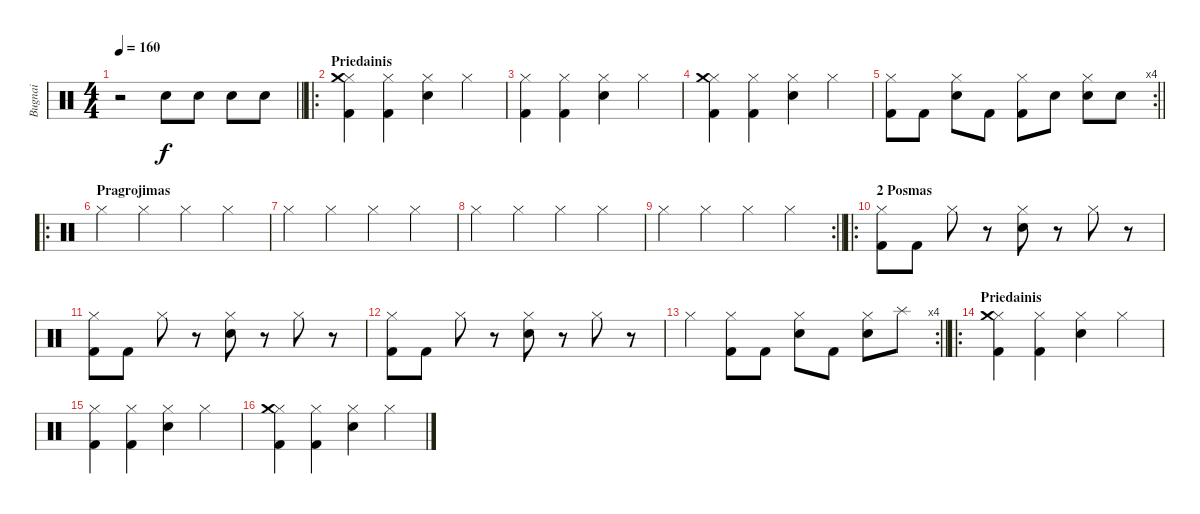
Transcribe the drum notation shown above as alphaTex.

\track ("Bugnai" "Bugnai") {instrument percussion}
\staff {score}
\articulation defaults
\ts (4 4)
\tempo 160
\clef neutral
\barLineRight lightlight
\ks c
r.2{dy f} "Snare (hit) 2".8 "Snare (hit) 2".8 "Snare (hit) 2".8 "Snare (hit) 2".8 |
\ro
\section ("" "Priedainis")
("Hi-Hat (closed)" "Crash medium (hit)" "Kick (hit) 2").4 ("Hi-Hat (closed)" "Kick (hit) 2").4 ("Hi-Hat (closed)" "Snare (hit) 2").4 "Hi-Hat (closed)".4 |
("Hi-Hat (closed)" "Kick (hit) 2").4 ("Hi-Hat (closed)" "Kick (hit) 2").4 ("Hi-Hat (closed)" "Snare (hit) 2").4 "Hi-Hat (closed)".4 |
("Hi-Hat (closed)" "Crash medium (hit)" "Kick (hit) 2").4 ("Hi-Hat (closed)" "Kick (hit) 2").4 ("Hi-Hat (closed)" "Snare (hit) 2").4 "Hi-Hat (closed)".4 |
\rc 4
\barLineRight lightlight
("Hi-Hat (closed)" "Kick (hit) 2").8 "Kick (hit) 2".8 ("Hi-Hat (closed)" "Snare (hit) 2").8 "Kick (hit) 2".8 ("Hi-Hat (closed)" "Kick (hit) 2").8 "Snare (hit) 2".8 ("Hi-Hat (closed)" "Snare (hit) 2").8 "Snare (hit) 2".8 |
\ro
\section ("" "Pragrojimas")
"Hi-Hat (closed)".4 "Hi-Hat (closed)".4 "Hi-Hat (closed)".4 "Hi-Hat (closed)".4 |
"Hi-Hat (closed)".4 "Hi-Hat (closed)".4 "Hi-Hat (closed)".4 "Hi-Hat (closed)".4 |
"Hi-Hat (closed)".4 "Hi-Hat (closed)".4 "Hi-Hat (closed)".4 "Hi-Hat (closed)".4 |
\rc 2
\barLineRight lightlight "Hi-Hat (closed)".4 "Hi-Hat (closed)".4 "Hi-Hat (closed)".4 "Hi-Hat (closed)".4
|
\ro
\section ("" "2 Posmas")
("Hi-Hat (closed)" "Kick (hit) 2").8 "Kick (hit) 2".8 "Hi-Hat (closed)".8 r.8 ("Hi-Hat (closed)" "Snare (hit) 2").8 r.8 "Hi-Hat (closed)".8 r.8 |
("Hi-Hat (closed)" "Kick (hit) 2").8 "Kick (hit) 2".8 "Hi-Hat (closed)".8 r.8 ("Hi-Hat (closed)" "Snare (hit) 2").8 r.8 "Hi-Hat (closed)".8 r.8 |
("Hi-Hat (closed)" "Kick (hit) 2").8 "Kick (hit) 2".8 "Hi-Hat (closed)".8 r.8 ("Hi-Hat (closed)" "Snare (hit) 2").8 r.8 "Hi-Hat (closed)".8 r.8 |
\rc 4
\barLineRight lightlight "Hi-Hat (closed)".4
("Hi-Hat (closed)" "Kick (hit) 2").8 "Kick (hit) 2".8 ("Hi-Hat (closed)" "Snare (hit) 2").8 "Kick (hit) 2".8 ("Hi-Hat (closed)" "Snare (hit) 2").8 "Splash (hit)".8 |
\ro
\section ("" "Priedainis")
("Hi-Hat (closed)" "Crash medium (hit)" "Kick (hit) 2").4 ("Hi-Hat (closed)" "Kick (hit) 2").4 ("Hi-Hat (closed)" "Snare (hit) 2").4 "Hi-Hat (closed)".4 |
("Hi-Hat (closed)" "Kick (hit) 2").4 ("Hi-Hat (closed)" "Kick (hit) 2").4 ("Hi-Hat (closed)" "Snare (hit) 2").4 "Hi-Hat (closed)".4 |
("Hi-Hat (closed)" "Crash medium (hit)" "Kick (hit) 2").4 ("Hi-Hat (closed)" "Kick (hit) 2").4 ("Hi-Hat (closed)" "Snare (hit) 2").4 "Hi-Hat (closed)".4
